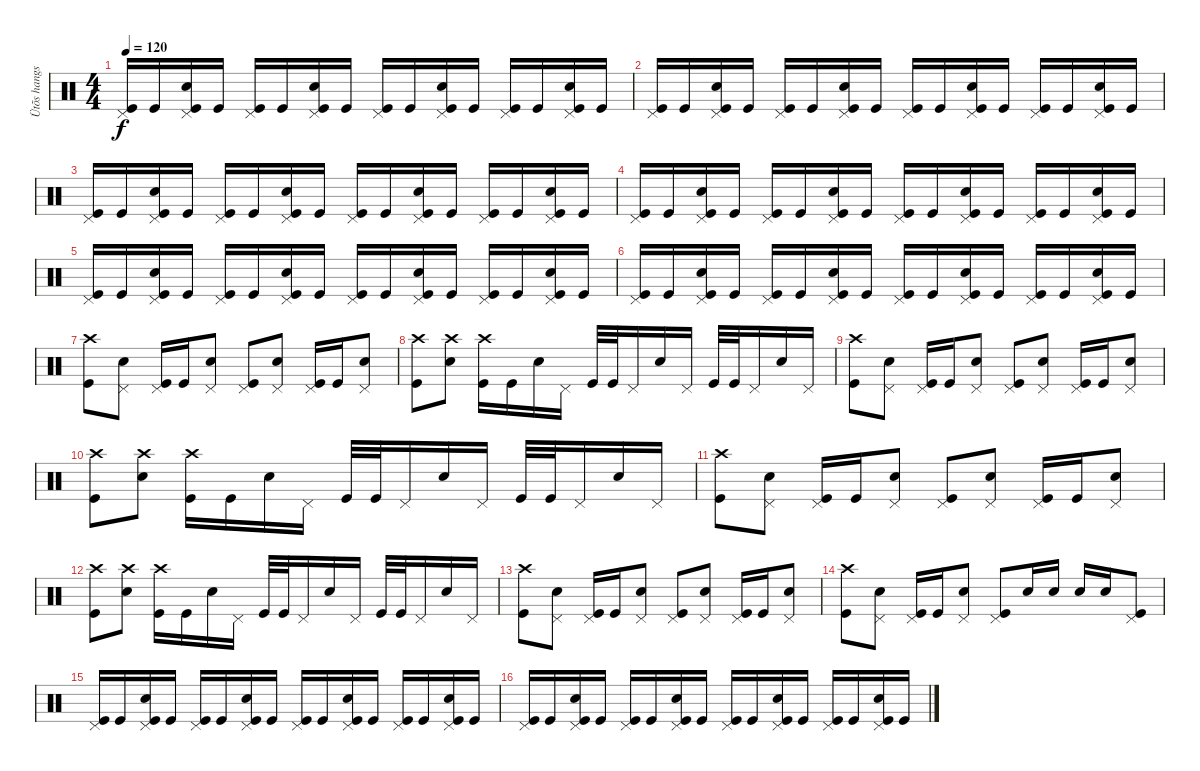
\track ("Ütõs hangszer" "Ütõs hangs") {instrument percussion}
\staff {score}
\articulation defaults
\ts (4 4)
\tempo 120
\clef neutral
\ks c
("Pedal Hi-Hat (hit)" "Kick (hit)").16{dy f} "Kick (hit)".16 ("Pedal Hi-Hat (hit)" "Electric Snare (hit)" "Kick (hit)").16 "Kick (hit)".16 ("Pedal Hi-Hat (hit)" "Kick (hit)").16 "Kick (hit)".16 ("Pedal Hi-Hat (hit)" "Electric Snare (hit)" "Kick (hit)").16 "Kick (hit)".16 ("Pedal Hi-Hat (hit)" "Kick (hit)").16 "Kick (hit)".16 ("Pedal Hi-Hat (hit)" "Electric Snare (hit)" "Kick (hit)").16 "Kick (hit)".16 ("Pedal Hi-Hat (hit)" "Kick (hit)").16 "Kick (hit)".16 ("Pedal Hi-Hat (hit)" "Electric Snare (hit)" "Kick (hit)").16 "Kick (hit)".16 |
("Pedal Hi-Hat (hit)" "Kick (hit)").16 "Kick (hit)".16 ("Pedal Hi-Hat (hit)" "Electric Snare (hit)" "Kick (hit)").16 "Kick (hit)".16 ("Pedal Hi-Hat (hit)" "Kick (hit)").16 "Kick (hit)".16 ("Pedal Hi-Hat (hit)" "Electric Snare (hit)" "Kick (hit)").16 "Kick (hit)".16 ("Pedal Hi-Hat (hit)" "Kick (hit)").16 "Kick (hit)".16 ("Pedal Hi-Hat (hit)" "Electric Snare (hit)" "Kick (hit)").16 "Kick (hit)".16 ("Pedal Hi-Hat (hit)" "Kick (hit)").16 "Kick (hit)".16 ("Pedal Hi-Hat (hit)" "Electric Snare (hit)" "Kick (hit)").16 "Kick (hit)".16 |
("Pedal Hi-Hat (hit)" "Kick (hit)").16 "Kick (hit)".16 ("Pedal Hi-Hat (hit)" "Electric Snare (hit)" "Kick (hit)").16 "Kick (hit)".16 ("Pedal Hi-Hat (hit)" "Kick (hit)").16 "Kick (hit)".16 ("Pedal Hi-Hat (hit)" "Electric Snare (hit)" "Kick (hit)").16 "Kick (hit)".16 ("Pedal Hi-Hat (hit)" "Kick (hit)").16 "Kick (hit)".16 ("Pedal Hi-Hat (hit)" "Electric Snare (hit)" "Kick (hit)").16 "Kick (hit)".16 ("Pedal Hi-Hat (hit)" "Kick (hit)").16 "Kick (hit)".16 ("Pedal Hi-Hat (hit)" "Electric Snare (hit)" "Kick (hit)").16 "Kick (hit)".16 |
("Pedal Hi-Hat (hit)" "Kick (hit)").16 "Kick (hit)".16 ("Pedal Hi-Hat (hit)" "Electric Snare (hit)" "Kick (hit)").16 "Kick (hit)".16 ("Pedal Hi-Hat (hit)" "Kick (hit)").16 "Kick (hit)".16 ("Pedal Hi-Hat (hit)" "Electric Snare (hit)" "Kick (hit)").16 "Kick (hit)".16 ("Pedal Hi-Hat (hit)" "Kick (hit)").16 "Kick (hit)".16 ("Pedal Hi-Hat (hit)" "Electric Snare (hit)" "Kick (hit)").16 "Kick (hit)".16 ("Pedal Hi-Hat (hit)" "Kick (hit)").16 "Kick (hit)".16 ("Pedal Hi-Hat (hit)" "Electric Snare (hit)" "Kick (hit)").16 "Kick (hit)".16 |
("Pedal Hi-Hat (hit)" "Kick (hit)").16 "Kick (hit)".16 ("Pedal Hi-Hat (hit)" "Electric Snare (hit)" "Kick (hit)").16 "Kick (hit)".16 ("Pedal Hi-Hat (hit)" "Kick (hit)").16 "Kick (hit)".16 ("Pedal Hi-Hat (hit)" "Electric Snare (hit)" "Kick (hit)").16 "Kick (hit)".16 ("Pedal Hi-Hat (hit)" "Kick (hit)").16 "Kick (hit)".16 ("Pedal Hi-Hat (hit)" "Electric Snare (hit)" "Kick (hit)").16 "Kick (hit)".16 ("Pedal Hi-Hat (hit)" "Kick (hit)").16 "Kick (hit)".16 ("Pedal Hi-Hat (hit)" "Electric Snare (hit)" "Kick (hit)").16 "Kick (hit)".16 |
("Pedal Hi-Hat (hit)" "Kick (hit)").16 "Kick (hit)".16 ("Pedal Hi-Hat (hit)" "Electric Snare (hit)" "Kick (hit)").16 "Kick (hit)".16 ("Pedal Hi-Hat (hit)" "Kick (hit)").16 "Kick (hit)".16 ("Pedal Hi-Hat (hit)" "Electric Snare (hit)" "Kick (hit)").16 "Kick (hit)".16 ("Pedal Hi-Hat (hit)" "Kick (hit)").16 "Kick (hit)".16 ("Pedal Hi-Hat (hit)" "Electric Snare (hit)" "Kick (hit)").16 "Kick (hit)".16 ("Pedal Hi-Hat (hit)" "Kick (hit)").16 "Kick (hit)".16 ("Pedal Hi-Hat (hit)" "Electric Snare (hit)" "Kick (hit)").16 "Kick (hit)".16 |
("Crash high (hit)" "Kick (hit)").8 ("Pedal Hi-Hat (hit)" "Electric Snare (hit)").8 ("Pedal Hi-Hat (hit)" "Kick (hit)").16 "Kick (hit)".16 ("Pedal Hi-Hat (hit)" "Electric Snare (hit)").8 ("Pedal Hi-Hat (hit)" "Kick (hit)").8 ("Pedal Hi-Hat (hit)" "Electric Snare (hit)").8 ("Pedal Hi-Hat (hit)" "Kick (hit)").16 "Kick (hit)".16 ("Pedal Hi-Hat (hit)" "Electric Snare (hit)").8 |
("Crash high (hit)" "Kick (hit)").8 ("Crash high (hit)" "Electric Snare (hit)").8 ("Crash high (hit)" "Kick (hit)").16 "Kick (hit)".16 "Electric Snare (hit)".16 "Pedal Hi-Hat (hit)".16 "Kick (hit)".32 "Kick (hit)".32 "Pedal Hi-Hat (hit)".16 "Electric Snare (hit)".16 "Pedal Hi-Hat (hit)".16 "Kick (hit)".32 "Kick (hit)".32 "Pedal Hi-Hat (hit)".16 "Electric Snare (hit)".16 "Pedal Hi-Hat (hit)".16 |
("Crash high (hit)" "Kick (hit)").8 ("Pedal Hi-Hat (hit)" "Electric Snare (hit)").8 ("Pedal Hi-Hat (hit)" "Kick (hit)").16 "Kick (hit)".16 ("Pedal Hi-Hat (hit)" "Electric Snare (hit)").8 ("Pedal Hi-Hat (hit)" "Kick (hit)").8 ("Pedal Hi-Hat (hit)" "Electric Snare (hit)").8 ("Pedal Hi-Hat (hit)" "Kick (hit)").16 "Kick (hit)".16 ("Pedal Hi-Hat (hit)" "Electric Snare (hit)").8 |
("Crash high (hit)" "Kick (hit)").8 ("Crash high (hit)" "Electric Snare (hit)").8 ("Crash high (hit)" "Kick (hit)").16 "Kick (hit)".16 "Electric Snare (hit)".16 "Pedal Hi-Hat (hit)".16 "Kick (hit)".32 "Kick (hit)".32 "Pedal Hi-Hat (hit)".16 "Electric Snare (hit)".16 "Pedal Hi-Hat (hit)".16 "Kick (hit)".32 "Kick (hit)".32 "Pedal Hi-Hat (hit)".16 "Electric Snare (hit)".16 "Pedal Hi-Hat (hit)".16 |
("Crash high (hit)" "Kick (hit)").8 ("Pedal Hi-Hat (hit)" "Electric Snare (hit)").8 ("Pedal Hi-Hat (hit)" "Kick (hit)").16 "Kick (hit)".16 ("Pedal Hi-Hat (hit)" "Electric Snare (hit)").8 ("Pedal Hi-Hat (hit)" "Kick (hit)").8 ("Pedal Hi-Hat (hit)" "Electric Snare (hit)").8 ("Pedal Hi-Hat (hit)" "Kick (hit)").16 "Kick (hit)".16 ("Pedal Hi-Hat (hit)" "Electric Snare (hit)").8 |
("Crash high (hit)" "Kick (hit)").8 ("Crash high (hit)" "Electric Snare (hit)").8 ("Crash high (hit)" "Kick (hit)").16 "Kick (hit)".16 "Electric Snare (hit)".16 "Pedal Hi-Hat (hit)".16 "Kick (hit)".32 "Kick (hit)".32 "Pedal Hi-Hat (hit)".16 "Electric Snare (hit)".16 "Pedal Hi-Hat (hit)".16 "Kick (hit)".32 "Kick (hit)".32 "Pedal Hi-Hat (hit)".16 "Electric Snare (hit)".16 "Pedal Hi-Hat (hit)".16 |
("Crash high (hit)" "Kick (hit)").8 ("Pedal Hi-Hat (hit)" "Electric Snare (hit)").8 ("Pedal Hi-Hat (hit)" "Kick (hit)").16 "Kick (hit)".16 ("Pedal Hi-Hat (hit)" "Electric Snare (hit)").8 ("Pedal Hi-Hat (hit)" "Kick (hit)").8 ("Pedal Hi-Hat (hit)" "Electric Snare (hit)").8 ("Pedal Hi-Hat (hit)" "Kick (hit)").16 "Kick (hit)".16 ("Pedal Hi-Hat (hit)" "Electric Snare (hit)").8 |
("Crash high (hit)" "Kick (hit)").8 ("Pedal Hi-Hat (hit)" "Electric Snare (hit)").8 ("Pedal Hi-Hat (hit)" "Kick (hit)").16 "Kick (hit)".16 ("Pedal Hi-Hat (hit)" "Electric Snare (hit)").8 ("Pedal Hi-Hat (hit)" "Kick (hit)").8 "Electric Snare (hit)".16 "Electric Snare (hit)".16 "Electric Snare (hit)".16 "Electric Snare (hit)".16 ("Pedal Hi-Hat (hit)" "Kick (hit)").8 |
("Pedal Hi-Hat (hit)" "Kick (hit)").16 "Kick (hit)".16 ("Pedal Hi-Hat (hit)" "Electric Snare (hit)" "Kick (hit)").16 "Kick (hit)".16 ("Pedal Hi-Hat (hit)" "Kick (hit)").16 "Kick (hit)".16 ("Pedal Hi-Hat (hit)" "Electric Snare (hit)" "Kick (hit)").16 "Kick (hit)".16 ("Pedal Hi-Hat (hit)" "Kick (hit)").16 "Kick (hit)".16 ("Pedal Hi-Hat (hit)" "Electric Snare (hit)" "Kick (hit)").16 "Kick (hit)".16 ("Pedal Hi-Hat (hit)" "Kick (hit)").16 "Kick (hit)".16 ("Pedal Hi-Hat (hit)" "Electric Snare (hit)" "Kick (hit)").16 "Kick (hit)".16 |
("Pedal Hi-Hat (hit)" "Kick (hit)").16 "Kick (hit)".16 ("Pedal Hi-Hat (hit)" "Electric Snare (hit)" "Kick (hit)").16 "Kick (hit)".16 ("Pedal Hi-Hat (hit)" "Kick (hit)").16 "Kick (hit)".16 ("Pedal Hi-Hat (hit)" "Electric Snare (hit)" "Kick (hit)").16 "Kick (hit)".16 ("Pedal Hi-Hat (hit)" "Kick (hit)").16 "Kick (hit)".16 ("Pedal Hi-Hat (hit)" "Electric Snare (hit)" "Kick (hit)").16 "Kick (hit)".16 ("Pedal Hi-Hat (hit)" "Kick (hit)").16 "Kick (hit)".16 ("Pedal Hi-Hat (hit)" "Electric Snare (hit)" "Kick (hit)").16 "Kick (hit)".16
